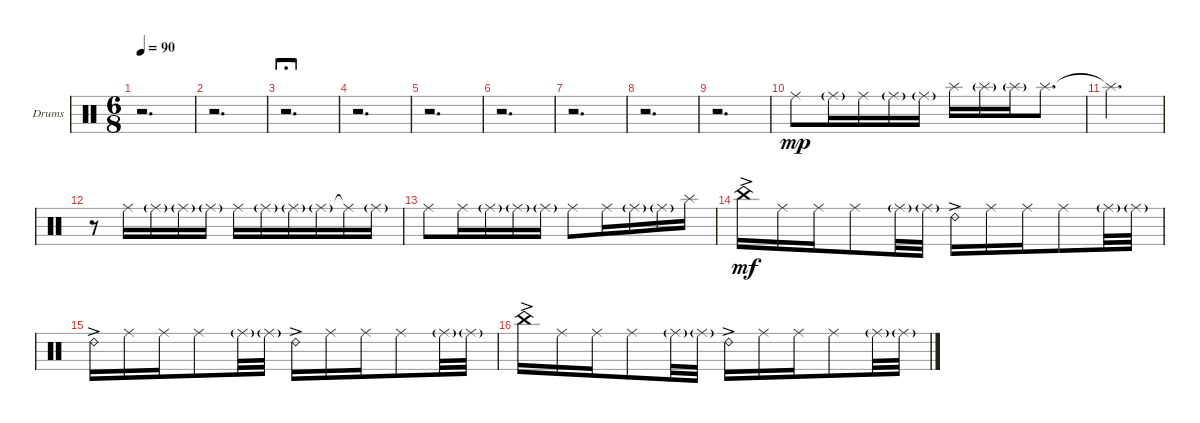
\bracketExtendMode groupsimilarinstruments
\firstSystemTrackNameOrientation horizontal
\otherSystemsTrackNameOrientation horizontal
\track ("Drumkit" "Drums") {instrument percussion}
\staff {score}
\articulation defaults
\ts (6 8)
\tempo 90
\clef neutral
\ks c
r.2{d dy mp} |
r.2{d} |
r.2{d fermata (long 0.32)} |
r.2{d} |
r.2{d} |
r.2{d} |
r.2{d} |
r.2{d} |
r.2{d} |
"Ride (middle)".8 "Ride (middle)"{g}.16 "Ride (middle)".16 "Ride (middle)"{g}.16 "Ride (middle)"{g}.16 "Splash (hit)".16 "Splash (hit)"{g}.16 "Splash (hit)"{g}.16 "Splash (hit)".8{d} |
"Splash (hit)"{t}.2{d} |
r.8 "Ride (middle)".16 "Ride (middle)"{g}.16 "Ride (middle)"{g}.16 "Ride (middle)"{g}.16 "Ride (middle)".16 "Ride (middle)"{g}.16 "Ride (middle)"{g}.16 "Ride (middle)"{g}.16 "Ride (middle)"{t}.16 "Ride (middle)"{g}.16 |
"Ride (middle)".8 "Ride (middle)".16 "Ride (middle)"{g}.16 "Ride (middle)"{g}.16 "Ride (middle)"{g}.16 "Ride (middle)".8 "Ride (middle)".16 "Ride (middle)"{g}.16 "Ride (middle)"{g}.16 "Splash (hit)".16 |
"China (hit)"{ac}.16{dy mf} "Ride (middle)".16 "Ride (middle)".16 "Ride (middle)".8 "Ride (middle)"{g}.32 "Ride (middle)"{g}.32 "Ride (bell) 2"{ac}.16 "Ride (middle)".16 "Ride (middle)".16 "Ride (middle)".8 "Ride (middle)"{g}.32 "Ride (middle)"{g}.32 |
"Ride (bell) 2"{ac}.16 "Ride (middle)".16 "Ride (middle)".16 "Ride (middle)".8 "Ride (middle)"{g}.32 "Ride (middle)"{g}.32 "Ride (bell) 2"{ac}.16 "Ride (middle)".16 "Ride (middle)".16 "Ride (middle)".8 "Ride (middle)"{g}.32 "Ride (middle)"{g}.32 |
"China (hit)"{ac}.16 "Ride (middle)".16 "Ride (middle)".16 "Ride (middle)".8 "Ride (middle)"{g}.32 "Ride (middle)"{g}.32 "Ride (bell) 2"{ac}.16 "Ride (middle)".16 "Ride (middle)".16 "Ride (middle)".8 "Ride (middle)"{g}.32 "Ride (middle)"{g}.32
